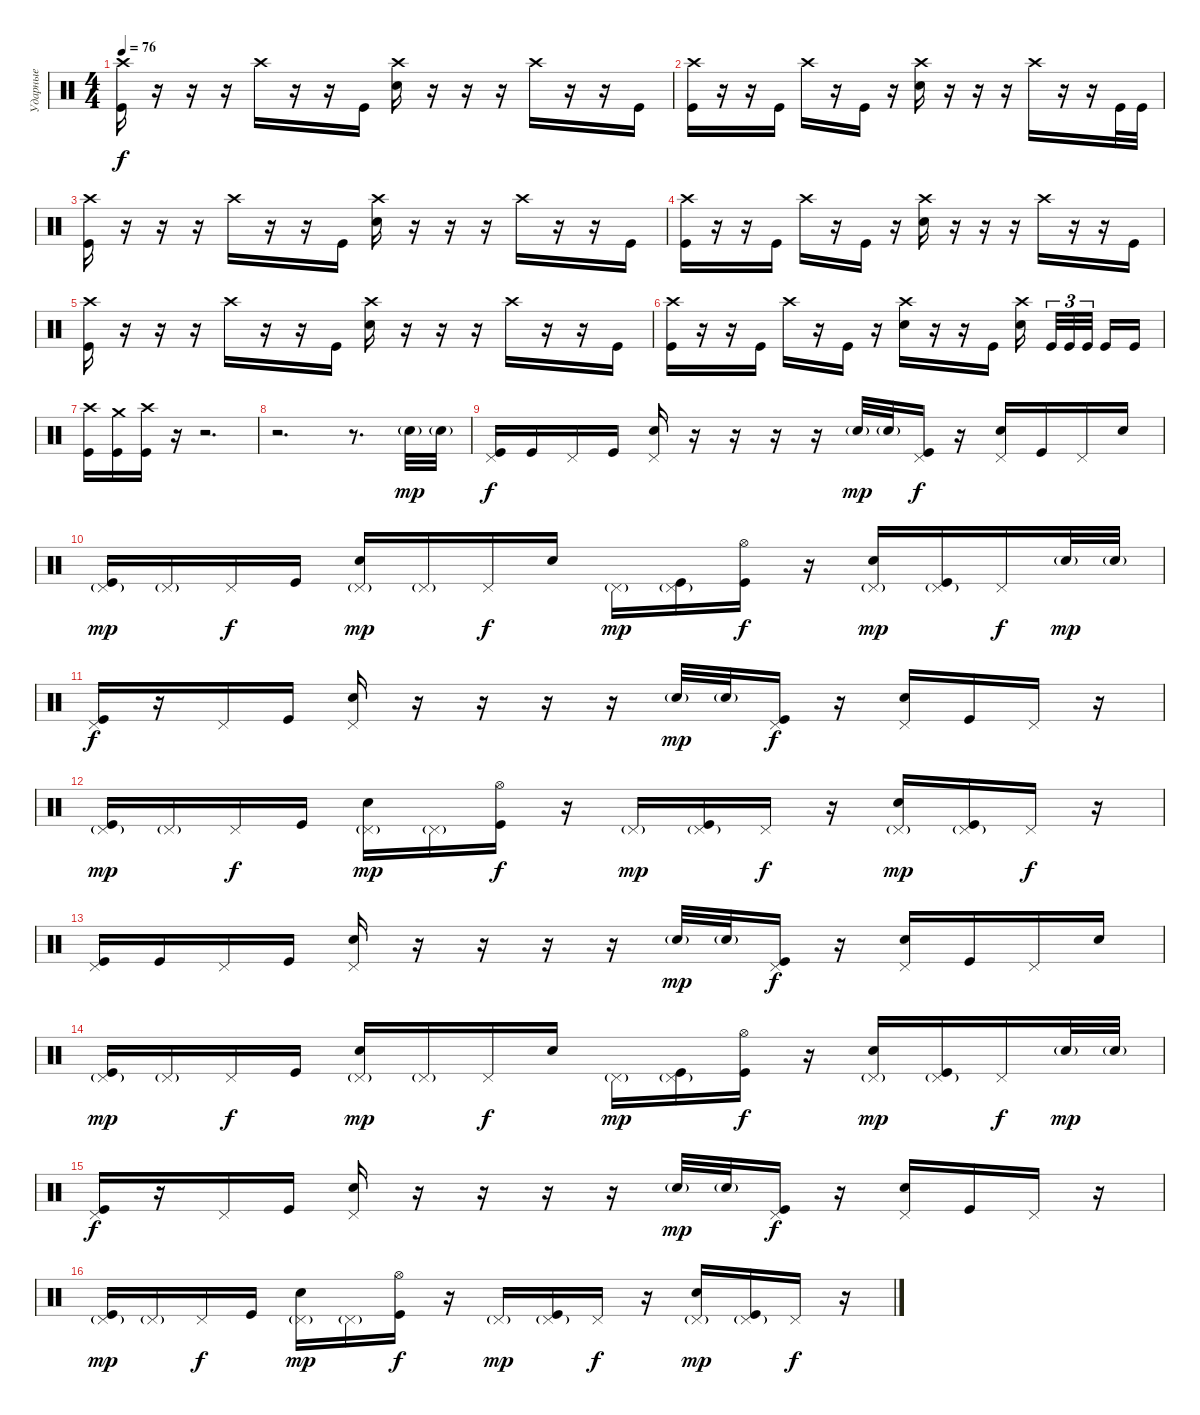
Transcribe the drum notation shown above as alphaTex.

\track ("Ударные" "Ударные") {instrument percussion}
\staff {score}
\articulation defaults
\ts (4 4)
\tempo 76
\clef neutral
\ks c
("Crash high (hit)" "Kick (hit)").16{dy f} r.16 r.16 r.16 "Crash high (hit)".16 r.16 r.16 "Kick (hit)".16 ("Crash high (hit)" "Snare (hit) 2").16 r.16 r.16 r.16 "Crash high (hit)".16 r.16 r.16 "Kick (hit)".16 |
("Crash high (hit)" "Kick (hit)").16 r.16 r.16 "Kick (hit)".16 "Crash high (hit)".16 r.16 "Kick (hit)".16 r.16 ("Crash high (hit)" "Snare (hit) 2").16 r.16 r.16 r.16 "Crash high (hit)".16 r.16 r.16 "Kick (hit)".32 "Kick (hit)".32 |
("Crash high (hit)" "Kick (hit)").16 r.16 r.16 r.16 "Crash high (hit)".16 r.16 r.16 "Kick (hit)".16 ("Crash high (hit)" "Snare (hit) 2").16 r.16 r.16 r.16 "Crash high (hit)".16 r.16 r.16 "Kick (hit)".16 |
("Crash high (hit)" "Kick (hit)").16 r.16 r.16 "Kick (hit)".16 "Crash high (hit)".16 r.16 "Kick (hit)".16 r.16 ("Crash high (hit)" "Snare (hit) 2").16 r.16 r.16 r.16 "Crash high (hit)".16 r.16 r.16 "Kick (hit)".16 |
("Crash high (hit)" "Kick (hit)").16 r.16 r.16 r.16 "Crash high (hit)".16 r.16 r.16 "Kick (hit)".16 ("Crash high (hit)" "Snare (hit) 2").16 r.16 r.16 r.16 "Crash high (hit)".16 r.16 r.16 "Kick (hit)".16 |
("Crash high (hit)" "Kick (hit)").16 r.16 r.16 "Kick (hit)".16 "Crash high (hit)".16 r.16 "Kick (hit)".16 r.16 ("Crash high (hit)" "Snare (hit) 2").16 r.16 r.16 "Kick (hit)".16 ("Crash high (hit)" "Snare (hit) 2").16 "Kick (hit)".32{tu (3 2)} "Kick (hit)".32{tu (3 2)} "Kick (hit)".32{tu (3 2)} "Kick (hit)".16 "Kick (hit)".16 |
("Crash high (hit)" "Kick (hit)").16 ("Crash medium (hit)" "Kick (hit)").16 ("Crash high (hit)" "Kick (hit)").16 r.16 r.2{d} |
r.2{d} r.8{d} "Snare (hit) 2"{g}.32{dy mp} "Snare (hit) 2"{g}.32 |
("Pedal Hi-Hat (hit)" "Kick (hit)").16{dy f} "Kick (hit)".16 "Pedal Hi-Hat (hit)".16 "Kick (hit)".16 ("Pedal Hi-Hat (hit)" "Snare (hit) 2").16 r.16 r.16 r.16 r.16 "Snare (hit) 2"{g}.32{dy mp} "Snare (hit) 2"{g}.32 ("Pedal Hi-Hat (hit)" "Kick (hit)").16{dy f} r.16 ("Pedal Hi-Hat (hit)" "Snare (hit) 2").16 "Kick (hit)".16 "Pedal Hi-Hat (hit)".16 "Snare (hit) 2".16 |
("Pedal Hi-Hat (hit)"{g} "Kick (hit)").16{dy mp} "Pedal Hi-Hat (hit)"{g}.16 "Pedal Hi-Hat (hit)".16{dy f} "Kick (hit)".16 ("Pedal Hi-Hat (hit)"{g} "Snare (hit) 2").16{dy mp} "Pedal Hi-Hat (hit)"{g}.16 "Pedal Hi-Hat (hit)".16{dy f} "Snare (hit) 2".16 "Pedal Hi-Hat (hit)"{g}.16{dy mp} ("Pedal Hi-Hat (hit)"{g} "Kick (hit)").16 ("Hi-Hat (open)" "Kick (hit)").16{dy f} r.16 ("Pedal Hi-Hat (hit)"{g} "Snare (hit) 2").16{dy mp} ("Pedal Hi-Hat (hit)"{g} "Kick (hit)").16 "Pedal Hi-Hat (hit)".16{dy f} "Snare (hit) 2"{g}.32{dy mp} "Snare (hit) 2"{g}.32 |
("Pedal Hi-Hat (hit)" "Kick (hit)").16{dy f} r.16 "Pedal Hi-Hat (hit)".16 "Kick (hit)".16 ("Pedal Hi-Hat (hit)" "Snare (hit) 2").16 r.16 r.16 r.16 r.16 "Snare (hit) 2"{g}.32{dy mp} "Snare (hit) 2"{g}.32 ("Pedal Hi-Hat (hit)" "Kick (hit)").16{dy f} r.16 ("Pedal Hi-Hat (hit)" "Snare (hit) 2").16 "Kick (hit)".16 "Pedal Hi-Hat (hit)".16 r.16 |
("Pedal Hi-Hat (hit)"{g} "Kick (hit)").16{dy mp} "Pedal Hi-Hat (hit)"{g}.16 "Pedal Hi-Hat (hit)".16{dy f} "Kick (hit)".16 ("Pedal Hi-Hat (hit)"{g} "Snare (hit) 2").16{dy mp} "Pedal Hi-Hat (hit)"{g}.16 ("Hi-Hat (open)" "Kick (hit)").16{dy f} r.16 "Pedal Hi-Hat (hit)"{g}.16{dy mp} ("Pedal Hi-Hat (hit)"{g} "Kick (hit)").16 "Pedal Hi-Hat (hit)".16{dy f} r.16 ("Pedal Hi-Hat (hit)"{g} "Snare (hit) 2").16{dy mp} ("Pedal Hi-Hat (hit)"{g} "Kick (hit)").16 "Pedal Hi-Hat (hit)".16{dy f} r.16 |
("Pedal Hi-Hat (hit)" "Kick (hit)").16 "Kick (hit)".16 "Pedal Hi-Hat (hit)".16 "Kick (hit)".16 ("Pedal Hi-Hat (hit)" "Snare (hit) 2").16 r.16 r.16 r.16 r.16 "Snare (hit) 2"{g}.32{dy mp} "Snare (hit) 2"{g}.32 ("Pedal Hi-Hat (hit)" "Kick (hit)").16{dy f} r.16 ("Pedal Hi-Hat (hit)" "Snare (hit) 2").16 "Kick (hit)".16 "Pedal Hi-Hat (hit)".16 "Snare (hit) 2".16 |
("Pedal Hi-Hat (hit)"{g} "Kick (hit)").16{dy mp} "Pedal Hi-Hat (hit)"{g}.16 "Pedal Hi-Hat (hit)".16{dy f} "Kick (hit)".16 ("Pedal Hi-Hat (hit)"{g} "Snare (hit) 2").16{dy mp} "Pedal Hi-Hat (hit)"{g}.16 "Pedal Hi-Hat (hit)".16{dy f} "Snare (hit) 2".16 "Pedal Hi-Hat (hit)"{g}.16{dy mp} ("Pedal Hi-Hat (hit)"{g} "Kick (hit)").16 ("Hi-Hat (open)" "Kick (hit)").16{dy f} r.16 ("Pedal Hi-Hat (hit)"{g} "Snare (hit) 2").16{dy mp} ("Pedal Hi-Hat (hit)"{g} "Kick (hit)").16 "Pedal Hi-Hat (hit)".16{dy f} "Snare (hit) 2"{g}.32{dy mp} "Snare (hit) 2"{g}.32 |
("Pedal Hi-Hat (hit)" "Kick (hit)").16{dy f} r.16 "Pedal Hi-Hat (hit)".16 "Kick (hit)".16 ("Pedal Hi-Hat (hit)" "Snare (hit) 2").16 r.16 r.16 r.16 r.16 "Snare (hit) 2"{g}.32{dy mp} "Snare (hit) 2"{g}.32 ("Pedal Hi-Hat (hit)" "Kick (hit)").16{dy f} r.16 ("Pedal Hi-Hat (hit)" "Snare (hit) 2").16 "Kick (hit)".16 "Pedal Hi-Hat (hit)".16 r.16 |
("Pedal Hi-Hat (hit)"{g} "Kick (hit)").16{dy mp} "Pedal Hi-Hat (hit)"{g}.16 "Pedal Hi-Hat (hit)".16{dy f} "Kick (hit)".16 ("Pedal Hi-Hat (hit)"{g} "Snare (hit) 2").16{dy mp} "Pedal Hi-Hat (hit)"{g}.16 ("Hi-Hat (open)" "Kick (hit)").16{dy f} r.16 "Pedal Hi-Hat (hit)"{g}.16{dy mp} ("Pedal Hi-Hat (hit)"{g} "Kick (hit)").16 "Pedal Hi-Hat (hit)".16{dy f} r.16 ("Pedal Hi-Hat (hit)"{g} "Snare (hit) 2").16{dy mp} ("Pedal Hi-Hat (hit)"{g} "Kick (hit)").16 "Pedal Hi-Hat (hit)".16{dy f} r.16
